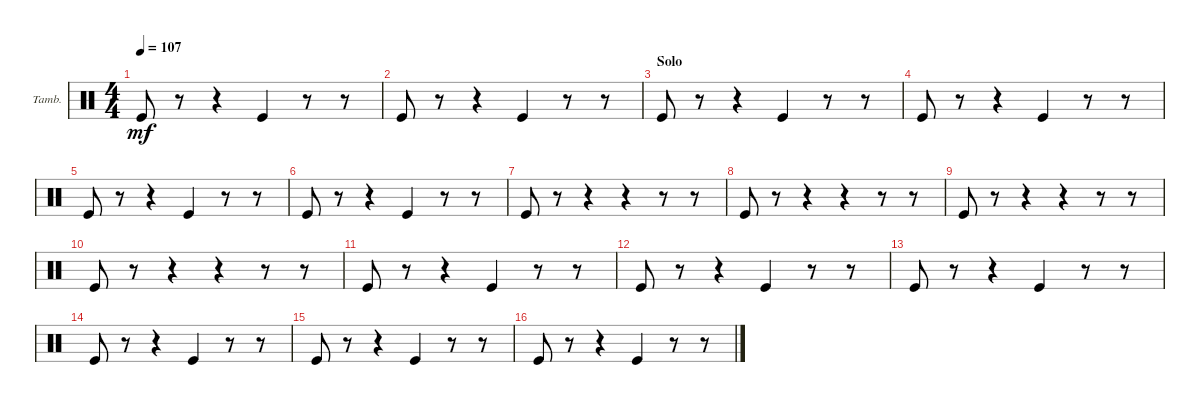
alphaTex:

\defaultSystemsLayout 4
\bracketExtendMode groupsimilarinstruments
\firstSystemTrackNameOrientation horizontal
\otherSystemsTrackNameOrientation horizontal
\track ("Tambourine" "Tamb.") {instrument percussion}
\staff {score}
\articulation defaults
\ts (4 4)
\tempo 107
\clef neutral
\scale
0.333333
\ks c "Kick (hit)".8{dy mf}
r.8 r.4 "Kick (hit)".4 r.8 r.8 |
\scale
0.333333 "Kick (hit)".8 r.8 r.4 "Kick (hit)".4 r.8 r.8 |
\section ("" "Solo")
\scale
0.333333 "Kick (hit)".8 r.8 r.4 "Kick (hit)".4 r.8 r.8 |
\scale
0.333333 "Kick (hit)".8 r.8 r.4 "Kick (hit)".4 r.8 r.8 |
"Kick (hit)".8 r.8 r.4 "Kick (hit)".4 r.8 r.8 |
"Kick (hit)".8 r.8 r.4 "Kick (hit)".4 r.8 r.8 |
"Kick (hit)".8 r.8 r.4 r.4 r.8 r.8 |
"Kick (hit)".8 r.8 r.4 r.4 r.8 r.8 |
"Kick (hit)".8 r.8 r.4 r.4 r.8 r.8 |
"Kick (hit)".8 r.8 r.4 r.4 r.8 r.8 |
"Kick (hit)".8 r.8 r.4 "Kick (hit)".4 r.8 r.8 |
"Kick (hit)".8 r.8 r.4 "Kick (hit)".4 r.8 r.8 |
"Kick (hit)".8 r.8 r.4 "Kick (hit)".4 r.8 r.8 |
"Kick (hit)".8 r.8 r.4 "Kick (hit)".4 r.8 r.8 |
"Kick (hit)".8 r.8 r.4 "Kick (hit)".4 r.8 r.8 |
"Kick (hit)".8 r.8 r.4 "Kick (hit)".4 r.8 r.8
